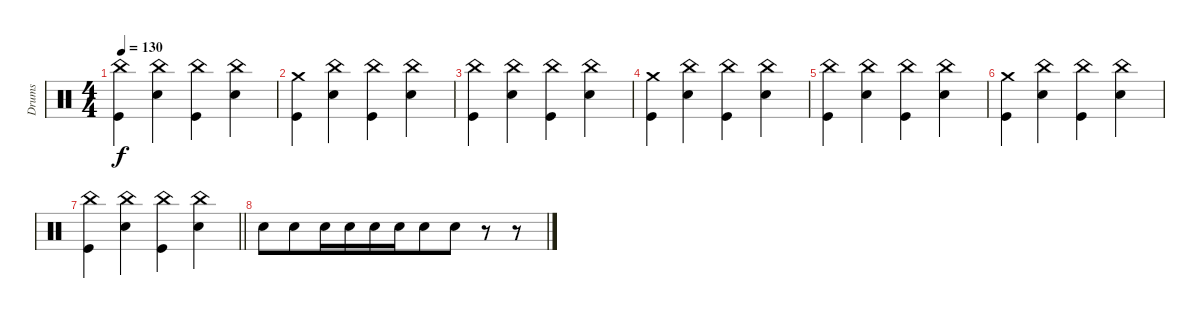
\track ("Drums" "Drums") {instrument percussion}
\staff {score}
\articulation defaults
\ts (4 4)
\tempo 130
\clef neutral
\ks c
("China (hit)" "Kick (hit)").4{dy f beam merge} ("China (hit)" "Snare (hit) 2").4{beam merge} ("China (hit)" "Kick (hit)").4{beam merge} ("China (hit)" "Snare (hit) 2").4 |
("Crash medium (hit)" "Kick (hit)").4{beam merge} ("China (hit)" "Snare (hit) 2").4{beam merge} ("China (hit)" "Kick (hit)").4{beam merge} ("China (hit)" "Snare (hit) 2").4 |
("China (hit)" "Kick (hit)").4{beam merge} ("China (hit)" "Snare (hit) 2").4{beam merge} ("China (hit)" "Kick (hit)").4{beam merge} ("China (hit)" "Snare (hit) 2").4 |
("Crash medium (hit)" "Kick (hit)").4{beam merge} ("China (hit)" "Snare (hit) 2").4{beam merge} ("China (hit)" "Kick (hit)").4{beam merge} ("China (hit)" "Snare (hit) 2").4 |
("China (hit)" "Kick (hit)").4{beam merge} ("China (hit)" "Snare (hit) 2").4{beam merge} ("China (hit)" "Kick (hit)").4{beam merge} ("China (hit)" "Snare (hit) 2").4 |
("Crash medium (hit)" "Kick (hit)").4{beam merge} ("China (hit)" "Snare (hit) 2").4{beam merge} ("China (hit)" "Kick (hit)").4{beam merge} ("China (hit)" "Snare (hit) 2").4 |
\barLineRight lightlight
("China (hit)" "Kick (hit)").4{beam merge} ("China (hit)" "Snare (hit) 2").4{beam merge} ("China (hit)" "Kick (hit)").4{beam merge} ("China (hit)" "Snare (hit) 2").4 |
"Snare (hit) 2".8{beam merge} "Snare (hit) 2".8{beam merge} "Snare (hit) 2".16{beam merge} "Snare (hit) 2".16{beam merge} "Snare (hit) 2".16{beam merge} "Snare (hit) 2".16{beam merge} "Snare (hit) 2".8{beam merge} "Snare (hit) 2".8 r.8 r.8
